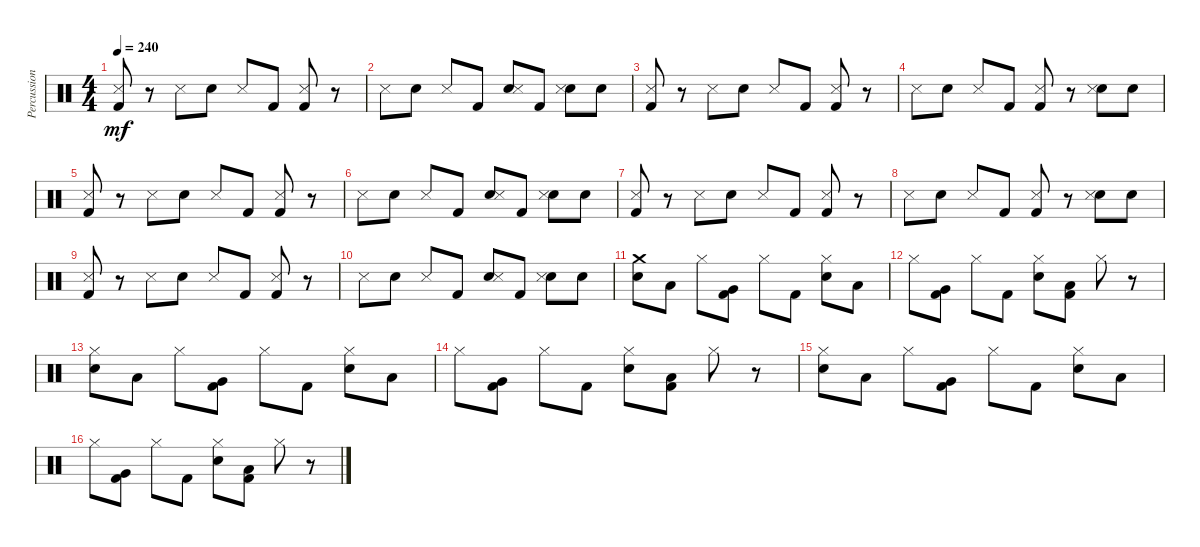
\track ("Percussion" "Percussion") {instrument percussion}
\staff {score}
\articulation defaults
\ts (4 4)
\tempo 240
\clef neutral
\ks c
("Kick (hit) 2" "Snare (side stick) 3").8{dy mf} r.8 "Snare (side stick) 3".8 "Electric Snare (hit)".8 "Snare (side stick) 3".8 "Kick (hit) 2".8 ("Kick (hit) 2" "Snare (side stick) 3").8 r.8 |
"Snare (side stick) 3".8 "Electric Snare (hit)".8 "Snare (side stick) 3".8 "Kick (hit) 2".8 ("Electric Snare (hit)" "Snare (side stick) 3").8 "Kick (hit) 2".8 ("Electric Snare (hit)" "Snare (side stick) 3").8 "Electric Snare (hit)".8 |
("Kick (hit) 2" "Snare (side stick) 3").8 r.8 "Snare (side stick) 3".8 "Electric Snare (hit)".8 "Snare (side stick) 3".8 "Kick (hit) 2".8 ("Kick (hit) 2" "Snare (side stick) 3").8 r.8 |
"Snare (side stick) 3".8 "Electric Snare (hit)".8 "Snare (side stick) 3".8 "Kick (hit) 2".8 ("Kick (hit) 2" "Snare (side stick) 3").8 r.8 ("Electric Snare (hit)" "Snare (side stick) 3").8 "Electric Snare (hit)".8 |
("Kick (hit) 2" "Snare (side stick) 3").8 r.8 "Snare (side stick) 3".8 "Electric Snare (hit)".8 "Snare (side stick) 3".8 "Kick (hit) 2".8 ("Kick (hit) 2" "Snare (side stick) 3").8 r.8 |
"Snare (side stick) 3".8 "Electric Snare (hit)".8 "Snare (side stick) 3".8 "Kick (hit) 2".8 ("Electric Snare (hit)" "Snare (side stick) 3").8 "Kick (hit) 2".8 ("Electric Snare (hit)" "Snare (side stick) 3").8 "Electric Snare (hit)".8 |
("Kick (hit) 2" "Snare (side stick) 3").8 r.8 "Snare (side stick) 3".8 "Electric Snare (hit)".8 "Snare (side stick) 3".8 "Kick (hit) 2".8 ("Kick (hit) 2" "Snare (side stick) 3").8 r.8 |
"Snare (side stick) 3".8 "Electric Snare (hit)".8 "Snare (side stick) 3".8 "Kick (hit) 2".8 ("Kick (hit) 2" "Snare (side stick) 3").8 r.8 ("Electric Snare (hit)" "Snare (side stick) 3").8 "Electric Snare (hit)".8 |
("Kick (hit) 2" "Snare (side stick) 3").8 r.8 "Snare (side stick) 3".8 "Electric Snare (hit)".8 "Snare (side stick) 3".8 "Kick (hit) 2".8 ("Kick (hit) 2" "Snare (side stick) 3").8 r.8 |
"Snare (side stick) 3".8 "Electric Snare (hit)".8 "Snare (side stick) 3".8 "Kick (hit) 2".8 ("Electric Snare (hit)" "Snare (side stick) 3").8 "Kick (hit) 2".8 ("Electric Snare (hit)" "Snare (side stick) 3").8 "Electric Snare (hit)".8 |
("Electric Snare (hit)" "Crash medium (hit)").8 "Low Tom (hit)".8 "Hi-Hat (closed)".8 ("Very Low Tom (hit)" "Kick (hit) 2").8 "Hi-Hat (closed)".8 "Kick (hit) 2".8 ("Electric Snare (hit)" "Hi-Hat (closed)").8 "Low Tom (hit)".8 |
"Hi-Hat (closed)".8 ("Kick (hit) 2" "Very Low Tom (hit)").8 "Hi-Hat (closed)".8 "Kick (hit) 2".8 ("Electric Snare (hit)" "Hi-Hat (closed)").8 ("Low Tom (hit)" "Kick (hit) 2").8 "Hi-Hat (closed)".8 r.8 |
("Electric Snare (hit)" "Hi-Hat (closed)").8 "Low Tom (hit)".8 "Hi-Hat (closed)".8 ("Very Low Tom (hit)" "Kick (hit) 2").8 "Hi-Hat (closed)".8 "Kick (hit) 2".8 ("Electric Snare (hit)" "Hi-Hat (closed)").8 "Low Tom (hit)".8 |
"Hi-Hat (closed)".8 ("Kick (hit) 2" "Very Low Tom (hit)").8 "Hi-Hat (closed)".8 "Kick (hit) 2".8 ("Electric Snare (hit)" "Hi-Hat (closed)").8 ("Low Tom (hit)" "Kick (hit) 2").8 "Hi-Hat (closed)".8 r.8 |
("Electric Snare (hit)" "Hi-Hat (closed)").8 "Low Tom (hit)".8 "Hi-Hat (closed)".8 ("Very Low Tom (hit)" "Kick (hit) 2").8 "Hi-Hat (closed)".8 "Kick (hit) 2".8 ("Electric Snare (hit)" "Hi-Hat (closed)").8 "Low Tom (hit)".8 |
"Hi-Hat (closed)".8 ("Kick (hit) 2" "Very Low Tom (hit)").8 "Hi-Hat (closed)".8 "Kick (hit) 2".8 ("Electric Snare (hit)" "Hi-Hat (closed)").8 ("Low Tom (hit)" "Kick (hit) 2").8 "Hi-Hat (closed)".8 r.8
